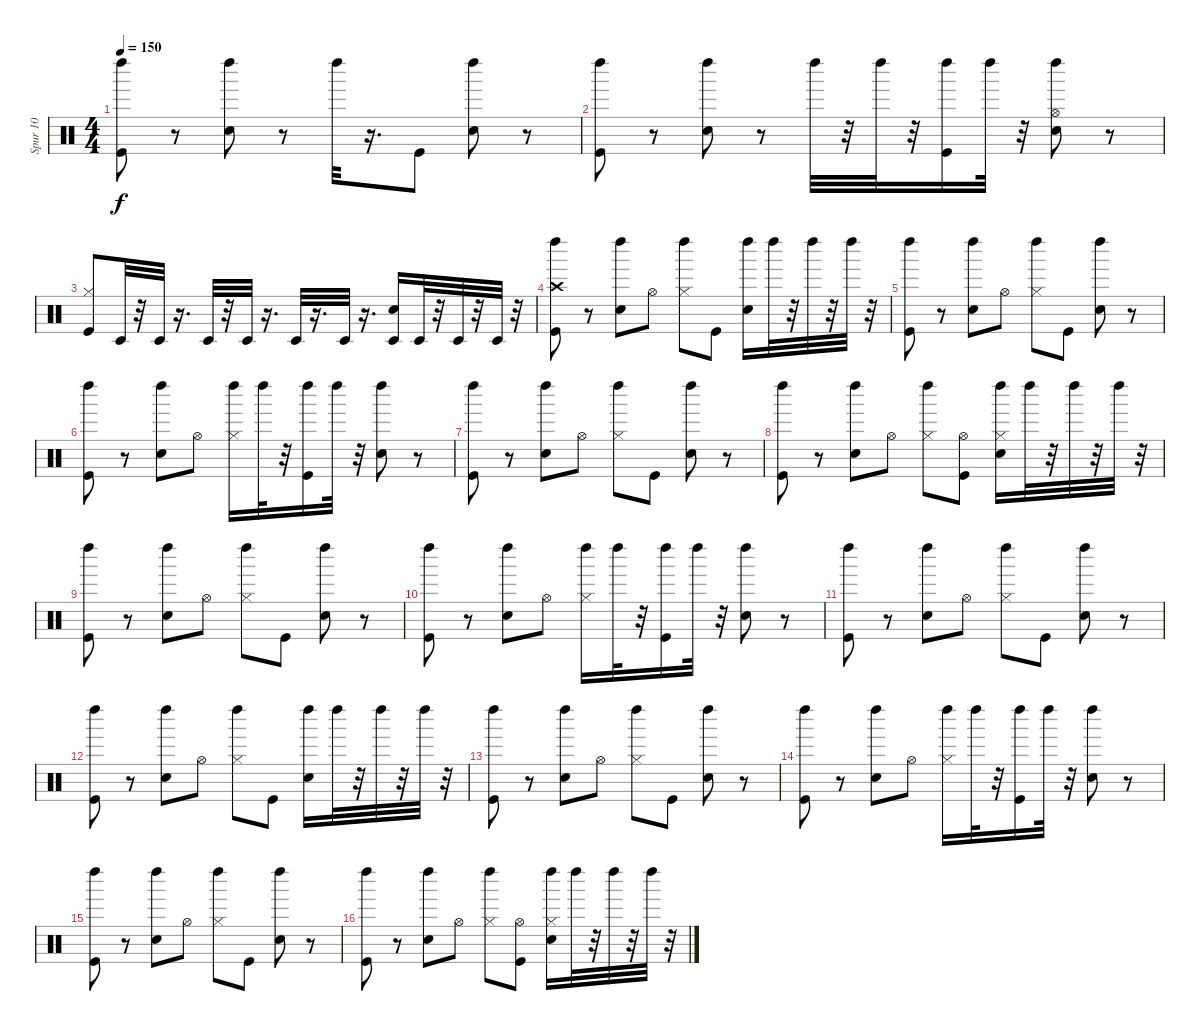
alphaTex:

\track ("Spur 10" "Spur 10") {instrument percussion}
\staff {score}
\articulation defaults
\ts (4 4)
\tempo 150
\clef neutral
\ks c
("Kick (hit)" "Left Maraca (hit)").8{dy f} r.8 ("Snare (hit) 2" "Left Maraca (hit)").8 r.8 "Left Maraca (hit)".32 r.16{d} "Kick (hit)".8 ("Snare (hit) 2" "Left Maraca (hit)").8 r.8 |
("Kick (hit)" "Left Maraca (hit)").8 r.8 ("Snare (hit) 2" "Left Maraca (hit)").8 r.8 "Left Maraca (hit)".32 r.32 "Left Maraca (hit)".32 r.32 ("Kick (hit)" "Left Maraca (hit)").16 "Left Maraca (hit)".32 r.32 ("Hi-Hat (open)" "Snare (hit) 2" "Left Maraca (hit)").8 r.8 |
("Hi-Hat (closed)" "Kick (hit)").8 "Timbale low (hit)".32 r.32 "Timbale low (hit)".32 r.16{d} "Timbale low (hit)".32 r.32 "Timbale low (hit)".32 r.16{d} "Timbale low (hit)".32 r.16{d} "Timbale low (hit)".32 r.16{d} ("Timbale low (hit)" "Snare (hit) 2").16 "Timbale low (hit)".32 r.32 "Timbale low (hit)".32 r.32 "Timbale low (hit)".32 r.32 |
("Kick (hit)" "Crash high (hit)" "Left Maraca (hit)").8 r.8 ("Snare (hit) 2" "Left Maraca (hit)").8 "Hi-Hat (open)".8 ("Hi-Hat (closed)" "Left Maraca (hit)").8 "Kick (hit)".8 ("Snare (hit) 2" "Left Maraca (hit)").16 "Left Maraca (hit)".32 r.32 "Left Maraca (hit)".32 r.32 "Left Maraca (hit)".32 r.32 |
("Kick (hit)" "Left Maraca (hit)").8 r.8 ("Snare (hit) 2" "Left Maraca (hit)").8 "Hi-Hat (open)".8 ("Hi-Hat (closed)" "Left Maraca (hit)").8 "Kick (hit)".8 ("Snare (hit) 2" "Left Maraca (hit)").8 r.8 |
("Kick (hit)" "Left Maraca (hit)").8 r.8 ("Snare (hit) 2" "Left Maraca (hit)").8 "Hi-Hat (open)".8 ("Hi-Hat (closed)" "Left Maraca (hit)").16 "Left Maraca (hit)".32 r.32 ("Kick (hit)" "Left Maraca (hit)").16 "Left Maraca (hit)".32 r.32 ("Snare (hit) 2" "Left Maraca (hit)").8 r.8 |
("Kick (hit)" "Left Maraca (hit)").8 r.8 ("Snare (hit) 2" "Left Maraca (hit)").8 "Hi-Hat (open)".8 ("Hi-Hat (closed)" "Left Maraca (hit)").8 "Kick (hit)".8 ("Snare (hit) 2" "Left Maraca (hit)").8 r.8 |
("Kick (hit)" "Left Maraca (hit)").8 r.8 ("Snare (hit) 2" "Left Maraca (hit)").8 "Hi-Hat (open)".8 ("Hi-Hat (closed)" "Left Maraca (hit)").8 ("Hi-Hat (open)" "Kick (hit)").8 ("Hi-Hat (closed)" "Snare (hit) 2" "Left Maraca (hit)").16 "Left Maraca (hit)".32 r.32 "Left Maraca (hit)".32 r.32 "Left Maraca (hit)".32 r.32 |
("Kick (hit)" "Left Maraca (hit)").8 r.8 ("Snare (hit) 2" "Left Maraca (hit)").8 "Hi-Hat (open)".8 ("Hi-Hat (closed)" "Left Maraca (hit)").8 "Kick (hit)".8 ("Snare (hit) 2" "Left Maraca (hit)").8 r.8 |
("Kick (hit)" "Left Maraca (hit)").8 r.8 ("Snare (hit) 2" "Left Maraca (hit)").8 "Hi-Hat (open)".8 ("Hi-Hat (closed)" "Left Maraca (hit)").16 "Left Maraca (hit)".32 r.32 ("Kick (hit)" "Left Maraca (hit)").16 "Left Maraca (hit)".32 r.32 ("Snare (hit) 2" "Left Maraca (hit)").8 r.8 |
("Kick (hit)" "Left Maraca (hit)").8 r.8 ("Snare (hit) 2" "Left Maraca (hit)").8 "Hi-Hat (open)".8 ("Hi-Hat (closed)" "Left Maraca (hit)").8 "Kick (hit)".8 ("Snare (hit) 2" "Left Maraca (hit)").8 r.8 |
("Kick (hit)" "Left Maraca (hit)").8 r.8 ("Snare (hit) 2" "Left Maraca (hit)").8 "Hi-Hat (open)".8 ("Hi-Hat (closed)" "Left Maraca (hit)").8 "Kick (hit)".8 ("Snare (hit) 2" "Left Maraca (hit)").16 "Left Maraca (hit)".32 r.32 "Left Maraca (hit)".32 r.32 "Left Maraca (hit)".32 r.32 |
("Kick (hit)" "Left Maraca (hit)").8 r.8 ("Snare (hit) 2" "Left Maraca (hit)").8 "Hi-Hat (open)".8 ("Hi-Hat (closed)" "Left Maraca (hit)").8 "Kick (hit)".8 ("Snare (hit) 2" "Left Maraca (hit)").8 r.8 |
("Kick (hit)" "Left Maraca (hit)").8 r.8 ("Snare (hit) 2" "Left Maraca (hit)").8 "Hi-Hat (open)".8 ("Hi-Hat (closed)" "Left Maraca (hit)").16 "Left Maraca (hit)".32 r.32 ("Kick (hit)" "Left Maraca (hit)").16 "Left Maraca (hit)".32 r.32 ("Snare (hit) 2" "Left Maraca (hit)").8 r.8 |
("Kick (hit)" "Left Maraca (hit)").8 r.8 ("Snare (hit) 2" "Left Maraca (hit)").8 "Hi-Hat (open)".8 ("Hi-Hat (closed)" "Left Maraca (hit)").8 "Kick (hit)".8 ("Snare (hit) 2" "Left Maraca (hit)").8 r.8 |
("Kick (hit)" "Left Maraca (hit)").8 r.8 ("Snare (hit) 2" "Left Maraca (hit)").8 "Hi-Hat (open)".8 ("Hi-Hat (closed)" "Left Maraca (hit)").8 ("Hi-Hat (open)" "Kick (hit)").8 ("Hi-Hat (closed)" "Snare (hit) 2" "Left Maraca (hit)").16 "Left Maraca (hit)".32 r.32 "Left Maraca (hit)".32 r.32 "Left Maraca (hit)".32 r.32
